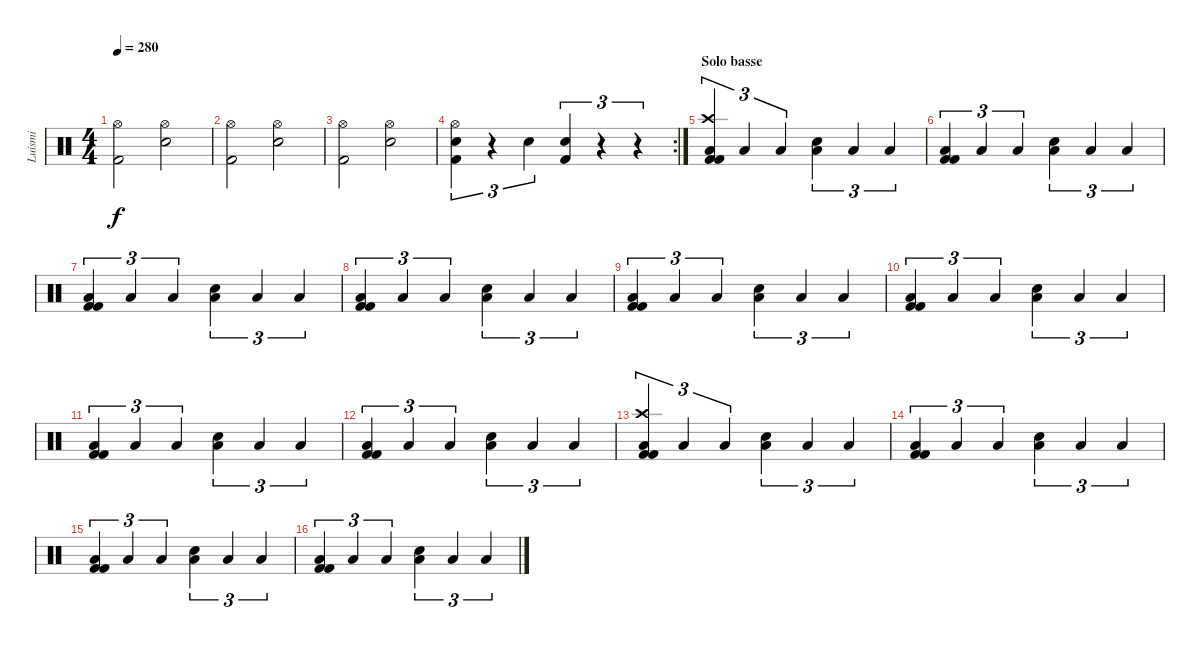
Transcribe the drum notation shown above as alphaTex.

\track ("Luismi" "Luismi") {instrument percussion}
\staff {score}
\articulation defaults
\ts (4 4)
\tempo 280
\clef neutral
\ks c
("Hi-Hat (open)" "Kick (hit) 2").2{dy f} ("Hi-Hat (open)" "Snare (hit) 2").2 |
("Hi-Hat (open)" "Kick (hit) 2").2 ("Hi-Hat (open)" "Snare (hit) 2").2 |
("Hi-Hat (open)" "Kick (hit) 2").2 ("Hi-Hat (open)" "Snare (hit) 2").2 |
\rc 2
("Hi-Hat (open)" "Snare (hit) 2" "Kick (hit) 2").4{tu (3 2)} r.4{tu (3 2)} "Snare (hit) 2".4{tu (3 2)} ("Snare (hit) 2" "Kick (hit) 2").4{tu (3 2)} r.4{tu (3 2)} r.4{tu (3 2)} |
\section ("" "Solo basse")
("Crash high (hit)" "Kick (hit) 2" "Low Floor Tom (hit)" "Kick (hit) 2").4{tu (3 2)} "Low Tom (hit)".4{tu (3 2)} "Low Floor Tom (hit)".4{tu (3 2)} ("Snare (hit) 2" "Low Tom (hit)").4{tu (3 2)} "Low Floor Tom (hit)".4{tu (3 2)} "Low Tom (hit)".4{tu (3 2)} |
("Kick (hit) 2" "Low Floor Tom (hit)" "Kick (hit) 2").4{tu (3 2)} "Low Tom (hit)".4{tu (3 2)} "Low Floor Tom (hit)".4{tu (3 2)} ("Snare (hit) 2" "Low Tom (hit)").4{tu (3 2)} "Low Floor Tom (hit)".4{tu (3 2)} "Low Tom (hit)".4{tu (3 2)} |
("Kick (hit) 2" "Low Floor Tom (hit)" "Kick (hit) 2").4{tu (3 2)} "Low Tom (hit)".4{tu (3 2)} "Low Floor Tom (hit)".4{tu (3 2)} ("Snare (hit) 2" "Low Tom (hit)").4{tu (3 2)} "Low Floor Tom (hit)".4{tu (3 2)} "Low Tom (hit)".4{tu (3 2)} |
("Kick (hit) 2" "Low Floor Tom (hit)" "Kick (hit) 2").4{tu (3 2)} "Low Tom (hit)".4{tu (3 2)} "Low Floor Tom (hit)".4{tu (3 2)} ("Snare (hit) 2" "Low Tom (hit)").4{tu (3 2)} "Low Floor Tom (hit)".4{tu (3 2)} "Low Tom (hit)".4{tu (3 2)} |
("Kick (hit) 2" "Low Floor Tom (hit)" "Kick (hit) 2").4{tu (3 2)} "Low Tom (hit)".4{tu (3 2)} "Low Floor Tom (hit)".4{tu (3 2)} ("Snare (hit) 2" "Low Tom (hit)").4{tu (3 2)} "Low Floor Tom (hit)".4{tu (3 2)} "Low Tom (hit)".4{tu (3 2)} |
("Kick (hit) 2" "Low Floor Tom (hit)" "Kick (hit) 2").4{tu (3 2)} "Low Tom (hit)".4{tu (3 2)} "Low Floor Tom (hit)".4{tu (3 2)} ("Snare (hit) 2" "Low Tom (hit)").4{tu (3 2)} "Low Floor Tom (hit)".4{tu (3 2)} "Low Tom (hit)".4{tu (3 2)} |
("Kick (hit) 2" "Low Floor Tom (hit)" "Kick (hit) 2").4{tu (3 2)} "Low Tom (hit)".4{tu (3 2)} "Low Floor Tom (hit)".4{tu (3 2)} ("Snare (hit) 2" "Low Tom (hit)").4{tu (3 2)} "Low Floor Tom (hit)".4{tu (3 2)} "Low Tom (hit)".4{tu (3 2)} |
("Kick (hit) 2" "Low Floor Tom (hit)" "Kick (hit) 2").4{tu (3 2)} "Low Tom (hit)".4{tu (3 2)} "Low Floor Tom (hit)".4{tu (3 2)} ("Snare (hit) 2" "Low Tom (hit)").4{tu (3 2)} "Low Floor Tom (hit)".4{tu (3 2)} "Low Tom (hit)".4{tu (3 2)} |
("Crash high (hit)" "Kick (hit) 2" "Low Floor Tom (hit)" "Kick (hit) 2").4{tu (3 2)} "Low Tom (hit)".4{tu (3 2)} "Low Floor Tom (hit)".4{tu (3 2)} ("Snare (hit) 2" "Low Tom (hit)").4{tu (3 2)} "Low Floor Tom (hit)".4{tu (3 2)} "Low Tom (hit)".4{tu (3 2)} |
("Kick (hit) 2" "Low Floor Tom (hit)" "Kick (hit) 2").4{tu (3 2)} "Low Tom (hit)".4{tu (3 2)} "Low Floor Tom (hit)".4{tu (3 2)} ("Snare (hit) 2" "Low Tom (hit)").4{tu (3 2)} "Low Floor Tom (hit)".4{tu (3 2)} "Low Tom (hit)".4{tu (3 2)} |
("Kick (hit) 2" "Low Floor Tom (hit)" "Kick (hit) 2").4{tu (3 2)} "Low Tom (hit)".4{tu (3 2)} "Low Floor Tom (hit)".4{tu (3 2)} ("Snare (hit) 2" "Low Tom (hit)").4{tu (3 2)} "Low Floor Tom (hit)".4{tu (3 2)} "Low Tom (hit)".4{tu (3 2)} |
("Kick (hit) 2" "Low Floor Tom (hit)" "Kick (hit) 2").4{tu (3 2)} "Low Tom (hit)".4{tu (3 2)} "Low Floor Tom (hit)".4{tu (3 2)} ("Snare (hit) 2" "Low Tom (hit)").4{tu (3 2)} "Low Floor Tom (hit)".4{tu (3 2)} "Low Tom (hit)".4{tu (3 2)}
